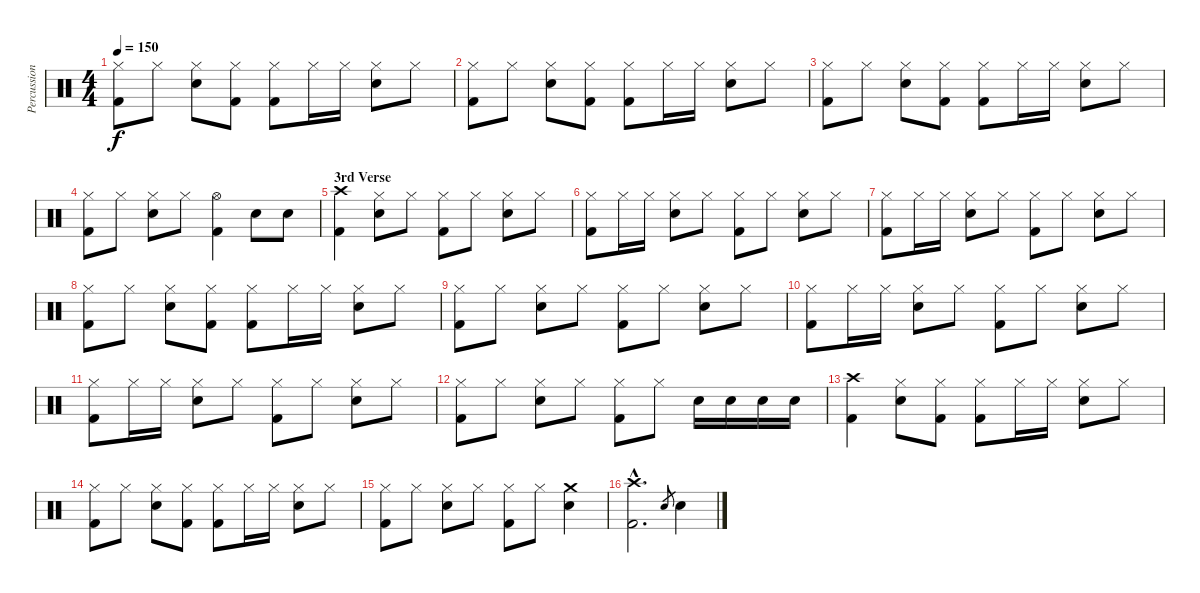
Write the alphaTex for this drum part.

\track ("Percussion" "Percussion") {instrument percussion}
\staff {score}
\articulation defaults
\ts (4 4)
\tempo 150
\clef neutral
\ks c
("Hi-Hat (closed)" "Kick (hit) 2").8{dy f} "Hi-Hat (closed)".8 ("Hi-Hat (closed)" "Snare (hit) 2").8 ("Hi-Hat (closed)" "Kick (hit) 2").8 ("Hi-Hat (closed)" "Kick (hit) 2").8 "Hi-Hat (closed)".16 "Hi-Hat (closed)".16 ("Hi-Hat (closed)" "Snare (hit) 2").8 "Hi-Hat (closed)".8 |
("Hi-Hat (closed)" "Kick (hit) 2").8 "Hi-Hat (closed)".8 ("Hi-Hat (closed)" "Snare (hit) 2").8 ("Hi-Hat (closed)" "Kick (hit) 2").8 ("Hi-Hat (closed)" "Kick (hit) 2").8 "Hi-Hat (closed)".16 "Hi-Hat (closed)".16 ("Hi-Hat (closed)" "Snare (hit) 2").8 "Hi-Hat (closed)".8 |
("Hi-Hat (closed)" "Kick (hit) 2").8 "Hi-Hat (closed)".8 ("Hi-Hat (closed)" "Snare (hit) 2").8 ("Hi-Hat (closed)" "Kick (hit) 2").8 ("Hi-Hat (closed)" "Kick (hit) 2").8 "Hi-Hat (closed)".16 "Hi-Hat (closed)".16 ("Hi-Hat (closed)" "Snare (hit) 2").8 "Hi-Hat (closed)".8 |
("Hi-Hat (closed)" "Kick (hit) 2").8 "Hi-Hat (closed)".8 ("Hi-Hat (closed)" "Snare (hit) 2").8 "Hi-Hat (closed)".8 ("Hi-Hat (open)" "Kick (hit) 2").4 "Snare (hit) 2".8 "Snare (hit) 2".8 |
\section ("" "3rd Verse")
("Crash high (hit)" "Kick (hit) 2").4 ("Hi-Hat (closed)" "Snare (hit) 2").8 "Hi-Hat (closed)".8 ("Hi-Hat (closed)" "Kick (hit) 2").8 "Hi-Hat (closed)".8 ("Hi-Hat (closed)" "Snare (hit) 2").8 "Hi-Hat (closed)".8 |
("Hi-Hat (closed)" "Kick (hit) 2").8 "Hi-Hat (closed)".16 "Hi-Hat (closed)".16 ("Hi-Hat (closed)" "Snare (hit) 2").8 "Hi-Hat (closed)".8 ("Hi-Hat (closed)" "Kick (hit) 2").8 "Hi-Hat (closed)".8 ("Hi-Hat (closed)" "Snare (hit) 2").8 "Hi-Hat (closed)".8 |
("Hi-Hat (closed)" "Kick (hit) 2").8 "Hi-Hat (closed)".16 "Hi-Hat (closed)".16 ("Hi-Hat (closed)" "Snare (hit) 2").8 "Hi-Hat (closed)".8 ("Hi-Hat (closed)" "Kick (hit) 2").8 "Hi-Hat (closed)".8 ("Hi-Hat (closed)" "Snare (hit) 2").8 "Hi-Hat (closed)".8 |
("Hi-Hat (closed)" "Kick (hit) 2").8 "Hi-Hat (closed)".8 ("Hi-Hat (closed)" "Snare (hit) 2").8 ("Hi-Hat (closed)" "Kick (hit) 2").8 ("Hi-Hat (closed)" "Kick (hit) 2").8 "Hi-Hat (closed)".16 "Hi-Hat (closed)".16 ("Hi-Hat (closed)" "Snare (hit) 2").8 "Hi-Hat (closed)".8 |
("Hi-Hat (closed)" "Kick (hit) 2").8 "Hi-Hat (closed)".8 ("Hi-Hat (closed)" "Snare (hit) 2").8 "Hi-Hat (closed)".8 ("Hi-Hat (closed)" "Kick (hit) 2").8 "Hi-Hat (closed)".8 ("Hi-Hat (closed)" "Snare (hit) 2").8 "Hi-Hat (closed)".8 |
("Hi-Hat (closed)" "Kick (hit) 2").8 "Hi-Hat (closed)".16 "Hi-Hat (closed)".16 ("Hi-Hat (closed)" "Snare (hit) 2").8 "Hi-Hat (closed)".8 ("Hi-Hat (closed)" "Kick (hit) 2").8 "Hi-Hat (closed)".8 ("Hi-Hat (closed)" "Snare (hit) 2").8 "Hi-Hat (closed)".8 |
("Hi-Hat (closed)" "Kick (hit) 2").8 "Hi-Hat (closed)".16 "Hi-Hat (closed)".16 ("Hi-Hat (closed)" "Snare (hit) 2").8 "Hi-Hat (closed)".8 ("Hi-Hat (closed)" "Kick (hit) 2").8 "Hi-Hat (closed)".8 ("Hi-Hat (closed)" "Snare (hit) 2").8 "Hi-Hat (closed)".8 |
("Hi-Hat (closed)" "Kick (hit) 2").8 "Hi-Hat (closed)".8 ("Hi-Hat (closed)" "Snare (hit) 2").8 "Hi-Hat (closed)".8 ("Hi-Hat (closed)" "Kick (hit) 2").8 "Hi-Hat (closed)".8 "Snare (hit) 2".16 "Snare (hit) 2".16 "Snare (hit) 2".16 "Snare (hit) 2".16 |
("Crash high (hit)" "Kick (hit) 2").4 ("Hi-Hat (closed)" "Snare (hit) 2").8 ("Hi-Hat (closed)" "Kick (hit) 2").8 ("Hi-Hat (closed)" "Kick (hit) 2").8 "Hi-Hat (closed)".16 "Hi-Hat (closed)".16 ("Hi-Hat (closed)" "Snare (hit) 2").8 "Hi-Hat (closed)".8 |
("Hi-Hat (closed)" "Kick (hit) 2").8 "Hi-Hat (closed)".8 ("Hi-Hat (closed)" "Snare (hit) 2").8 ("Hi-Hat (closed)" "Kick (hit) 2").8 ("Hi-Hat (closed)" "Kick (hit) 2").8 "Hi-Hat (closed)".16 "Hi-Hat (closed)".16 ("Hi-Hat (closed)" "Snare (hit) 2").8 "Hi-Hat (closed)".8 |
("Hi-Hat (closed)" "Kick (hit) 2").8 "Hi-Hat (closed)".8 ("Hi-Hat (closed)" "Snare (hit) 2").8 "Hi-Hat (closed)".8 ("Hi-Hat (closed)" "Kick (hit) 2").8 "Hi-Hat (closed)".8 ("Crash medium (hit)" "Snare (hit) 2").4 |
("Crash high (hit)"{hac} "Kick (hit) 2"{hac}).2{d} "Snare (hit) 2".8{gr} "Snare (hit) 2".4
